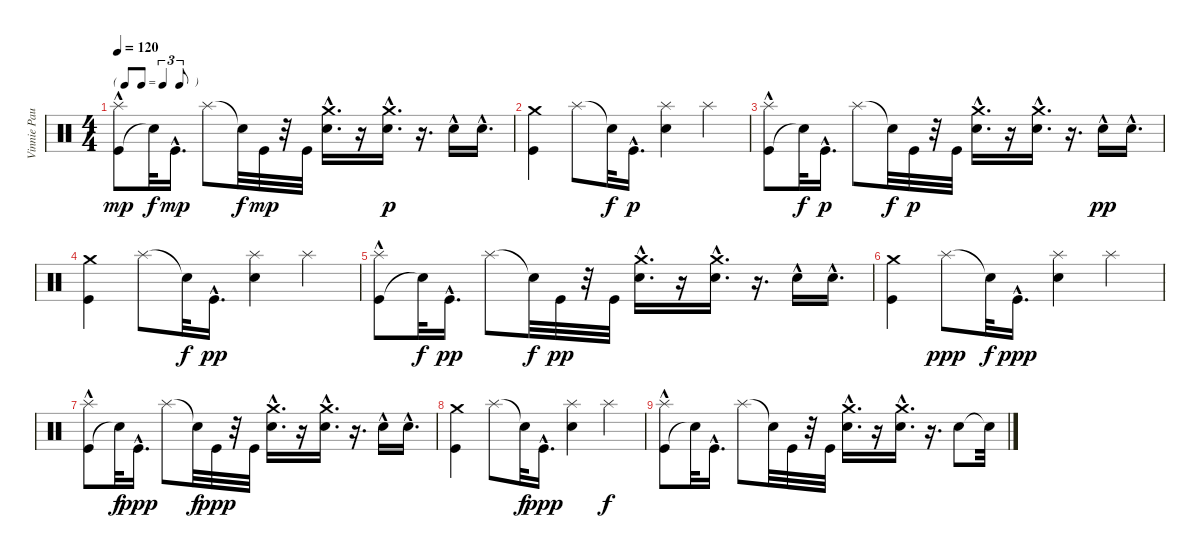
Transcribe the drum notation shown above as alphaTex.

\track ("Vinnie Paul (Drums)" "Vinnie Pau") {instrument percussion}
\staff {score}
\articulation defaults
\ts (4 4)
\tf triplet8th
\tempo 120
\clef neutral
\ks c
("Kick (hit)"{hac} "Splash (hit)").8{dy mp} "Snare (hit)"{t}.32{dy f} "Kick (hit)"{hac}.16{d dy mp} "Splash (hit)".8 "Snare (hit)"{t}.32{dy f} "Kick (hit)".32{dy mp} r.32 "Kick (hit)".32 ("Electric Snare (hit)"{hac} "Crash medium (hit)"{hac}).16{d} r.16 ("Crash medium (hit)"{hac} "Electric Snare (hit)"{hac}).16{d dy p} r.16{d} "Electric Snare (hit)"{hac}.16 "Electric Snare (hit)"{hac}.16{d} |
("Kick (hit)" "Crash medium (hit)").4 "Splash (hit)".8 "Snare (hit)"{t}.32{dy f} "Kick (hit)"{hac}.16{d dy p} ("Electric Snare (hit)" "Splash (hit)").4 "Splash (hit)".4 |
("Kick (hit)"{hac} "Splash (hit)").8 "Snare (hit)"{t}.32{dy f} "Kick (hit)"{hac}.16{d dy p} "Splash (hit)".8 "Snare (hit)"{t}.32{dy f} "Kick (hit)".32{dy p} r.32 "Kick (hit)".32 ("Electric Snare (hit)"{hac} "Crash medium (hit)"{hac}).16{d} r.16 ("Crash medium (hit)"{hac} "Electric Snare (hit)"{hac}).16{d} r.16{d} "Electric Snare (hit)"{hac}.16{dy pp} "Electric Snare (hit)"{hac}.16{d} |
("Kick (hit)" "Crash medium (hit)").4 "Splash (hit)".8 "Snare (hit)"{t}.32{dy f} "Kick (hit)"{hac}.16{d dy pp} ("Electric Snare (hit)" "Splash (hit)").4 "Splash (hit)".4 |
("Kick (hit)"{hac} "Splash (hit)").8 "Snare (hit)"{t}.32{dy f} "Kick (hit)"{hac}.16{d dy pp} "Splash (hit)".8 "Snare (hit)"{t}.32{dy f} "Kick (hit)".32{dy pp} r.32 "Kick (hit)".32 ("Electric Snare (hit)"{hac} "Crash medium (hit)"{hac}).16{d} r.16 ("Crash medium (hit)"{hac} "Electric Snare (hit)"{hac}).16{d} r.16{d} "Electric Snare (hit)"{hac}.16 "Electric Snare (hit)"{hac}.16{d} |
("Kick (hit)" "Crash medium (hit)").4 "Splash (hit)".8{dy ppp} "Snare (hit)"{t}.32{dy f} "Kick (hit)"{hac}.16{d dy ppp} ("Electric Snare (hit)" "Splash (hit)").4 "Splash (hit)".4 |
("Kick (hit)"{hac} "Splash (hit)").8 "Snare (hit)"{t}.32{dy f} "Kick (hit)"{hac}.16{d dy ppp} "Splash (hit)".8 "Snare (hit)"{t}.32{dy f} "Kick (hit)".32{dy ppp} r.32 "Kick (hit)".32 ("Electric Snare (hit)"{hac} "Crash medium (hit)"{hac}).16{d} r.16 ("Crash medium (hit)"{hac} "Electric Snare (hit)"{hac}).16{d} r.16{d} "Electric Snare (hit)"{hac}.16 "Electric Snare (hit)"{hac}.16{d} |
("Kick (hit)" "Crash medium (hit)").4 "Splash (hit)".8 "Snare (hit)"{t}.32{dy f} "Kick (hit)"{hac}.16{d dy ppp} ("Electric Snare (hit)" "Splash (hit)").4 "Splash (hit)".4{dy f} |
("Kick (hit)"{hac} "Splash (hit)").8 "Snare (hit)"{t}.32 "Kick (hit)"{hac}.16{d} "Splash (hit)".8 "Snare (hit)"{t}.32 "Kick (hit)".32 r.32 "Kick (hit)".32 ("Electric Snare (hit)"{hac} "Crash medium (hit)"{hac}).16{d} r.16 ("Crash medium (hit)"{hac} "Electric Snare (hit)"{hac}).16{d} r.16{d} "Electric Snare (hit)".8 "Snare (hit)"{t}.32
